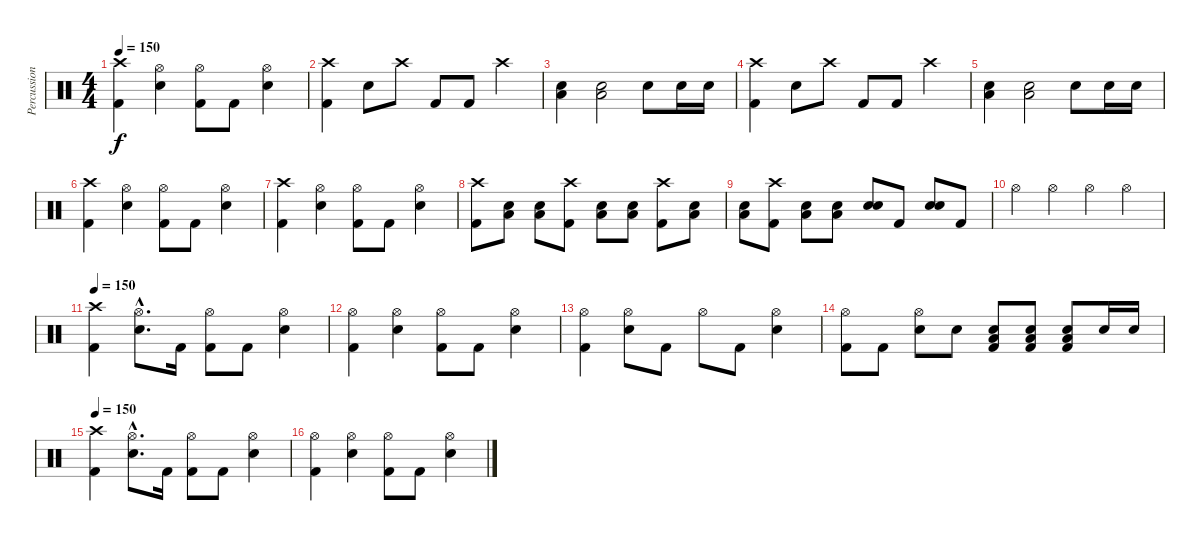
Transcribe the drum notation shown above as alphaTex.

\track ("Percussion" "Percussion") {instrument percussion}
\staff {score}
\articulation defaults
\ts (4 4)
\tempo 150
\clef neutral
\ks c
("Crash high (hit)" "Kick (hit) 2").4{dy f} ("Hi-Hat (open)" "Snare (hit) 2").4 ("Hi-Hat (open)" "Kick (hit) 2").8 "Kick (hit) 2".8 ("Hi-Hat (open)" "Snare (hit) 2").4 |
("Crash high (hit)" "Kick (hit) 2").4 "Snare (hit) 2".8 "Crash high (hit)".8 "Kick (hit) 2".8 "Kick (hit) 2".8 "Crash high (hit)".4 |
("Low Floor Tom (hit)" "Snare (hit) 2").4 ("Low Floor Tom (hit)" "Snare (hit) 2").2 "Snare (hit) 2".8 "Snare (hit) 2".16 "Snare (hit) 2".16 |
("Crash high (hit)" "Kick (hit) 2").4 "Snare (hit) 2".8 "Crash high (hit)".8 "Kick (hit) 2".8 "Kick (hit) 2".8 "Crash high (hit)".4 |
("Low Floor Tom (hit)" "Snare (hit) 2").4 ("Low Floor Tom (hit)" "Snare (hit) 2").2 "Snare (hit) 2".8 "Snare (hit) 2".16 "Snare (hit) 2".16 |
("Crash high (hit)" "Kick (hit) 2").4 ("Hi-Hat (open)" "Snare (hit) 2").4 ("Hi-Hat (open)" "Kick (hit) 2").8 "Kick (hit) 2".8 ("Hi-Hat (open)" "Snare (hit) 2").4 |
("Crash high (hit)" "Kick (hit) 2").4 ("Hi-Hat (open)" "Snare (hit) 2").4 ("Hi-Hat (open)" "Kick (hit) 2").8 "Kick (hit) 2".8 ("Hi-Hat (open)" "Snare (hit) 2").4 |
("Crash high (hit)" "Kick (hit) 2").8 ("Low Floor Tom (hit)" "Snare (hit) 2").8 ("Low Floor Tom (hit)" "Snare (hit) 2").8 ("Crash high (hit)" "Kick (hit) 2").8 ("Low Floor Tom (hit)" "Snare (hit) 2").8 ("Low Floor Tom (hit)" "Snare (hit) 2").8 ("Crash high (hit)" "Kick (hit) 2").8 ("Low Floor Tom (hit)" "Snare (hit) 2").8 |
("Low Floor Tom (hit)" "Snare (hit) 2").8 ("Crash high (hit)" "Kick (hit) 2").8 ("Low Floor Tom (hit)" "Snare (hit) 2").8 ("Low Floor Tom (hit)" "Snare (hit) 2").8 ("Snare (hit) 2" "Snare (hit) 2").8 "Kick (hit) 2".8 ("Snare (hit) 2" "Snare (hit) 2").8 "Kick (hit) 2".8 |
"Hi-Hat (open)".4 "Hi-Hat (open)".4 "Hi-Hat (open)".4 "Hi-Hat (open)".4 |
\tempo 150
("Crash high (hit)" "Kick (hit) 2").4 ("Hi-Hat (open)"{hac} "Snare (hit) 2"{hac}).8{d} "Kick (hit) 2".16 ("Hi-Hat (open)" "Kick (hit) 2").8 "Kick (hit) 2".8 ("Hi-Hat (open)" "Snare (hit) 2").4 |
("Hi-Hat (open)" "Kick (hit) 2").4 ("Hi-Hat (open)" "Snare (hit) 2").4 ("Hi-Hat (open)" "Kick (hit) 2").8 "Kick (hit) 2".8 ("Hi-Hat (open)" "Snare (hit) 2").4 |
("Hi-Hat (open)" "Kick (hit) 2").4 ("Hi-Hat (open)" "Snare (hit) 2").8 "Kick (hit) 2".8 "Hi-Hat (open)".8 "Kick (hit) 2".8 ("Hi-Hat (open)" "Snare (hit) 2").4 |
("Hi-Hat (open)" "Kick (hit) 2").8 "Kick (hit) 2".8 ("Hi-Hat (open)" "Snare (hit) 2").8 "Snare (hit) 2".8 ("Low Floor Tom (hit)" "Snare (hit) 2" "Kick (hit) 2").8 ("Low Floor Tom (hit)" "Snare (hit) 2" "Kick (hit) 2").8 ("Low Floor Tom (hit)" "Snare (hit) 2" "Kick (hit) 2").8 "Snare (hit) 2".16 "Snare (hit) 2".16 |
\tempo 150
("Crash high (hit)" "Kick (hit) 2").4 ("Hi-Hat (open)"{hac} "Snare (hit) 2"{hac}).8{d} "Kick (hit) 2".16 ("Hi-Hat (open)" "Kick (hit) 2").8 "Kick (hit) 2".8 ("Hi-Hat (open)" "Snare (hit) 2").4 |
("Hi-Hat (open)" "Kick (hit) 2").4 ("Hi-Hat (open)" "Snare (hit) 2").4 ("Hi-Hat (open)" "Kick (hit) 2").8 "Kick (hit) 2".8 ("Hi-Hat (open)" "Snare (hit) 2").4
